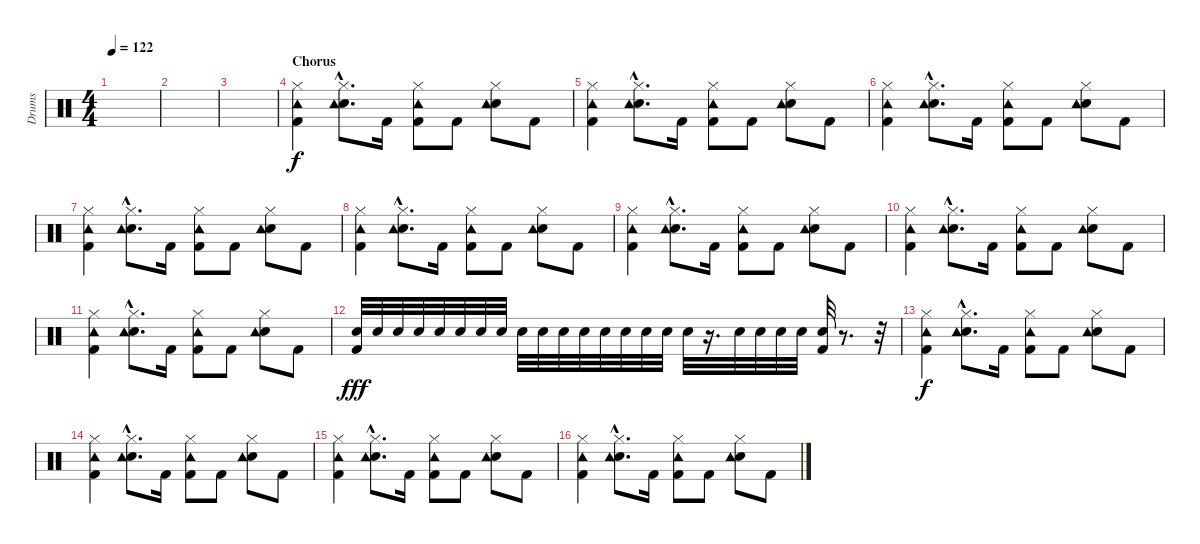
\track ("Drums" "Drums") {instrument percussion}
\staff {score}
\articulation defaults
\ts (4 4)
\tempo 122
\clef neutral
\ks c
|
|
|
\section ("" "Chorus")
("Hi-Hat (closed)" "Kick (hit) 2" "Tambourine (hit)").4 ("Hi-Hat (closed)"{hac} "Electric Snare (hit)"{hac} "Tambourine (hit)"{hac}).8{d} "Kick (hit) 2".16 ("Hi-Hat (closed)" "Kick (hit) 2" "Tambourine (hit)").8 "Kick (hit) 2".8 ("Hi-Hat (closed)" "Electric Snare (hit)" "Tambourine (hit)").8 "Kick (hit) 2".8 |
("Hi-Hat (closed)" "Kick (hit) 2" "Tambourine (hit)").4 ("Hi-Hat (closed)"{hac} "Electric Snare (hit)"{hac} "Tambourine (hit)"{hac}).8{d} "Kick (hit) 2".16 ("Hi-Hat (closed)" "Kick (hit) 2" "Tambourine (hit)").8 "Kick (hit) 2".8 ("Hi-Hat (closed)" "Electric Snare (hit)" "Tambourine (hit)").8 "Kick (hit) 2".8 |
("Hi-Hat (closed)" "Kick (hit) 2" "Tambourine (hit)").4 ("Hi-Hat (closed)"{hac} "Electric Snare (hit)"{hac} "Tambourine (hit)"{hac}).8{d} "Kick (hit) 2".16 ("Hi-Hat (closed)" "Kick (hit) 2" "Tambourine (hit)").8 "Kick (hit) 2".8 ("Hi-Hat (closed)" "Electric Snare (hit)" "Tambourine (hit)").8 "Kick (hit) 2".8 |
("Hi-Hat (closed)" "Kick (hit) 2" "Tambourine (hit)").4 ("Hi-Hat (closed)"{hac} "Electric Snare (hit)"{hac} "Tambourine (hit)"{hac}).8{d} "Kick (hit) 2".16 ("Hi-Hat (closed)" "Kick (hit) 2" "Tambourine (hit)").8 "Kick (hit) 2".8 ("Hi-Hat (closed)" "Electric Snare (hit)" "Tambourine (hit)").8 "Kick (hit) 2".8 |
("Hi-Hat (closed)" "Kick (hit) 2" "Tambourine (hit)").4 ("Hi-Hat (closed)"{hac} "Electric Snare (hit)"{hac} "Tambourine (hit)"{hac}).8{d} "Kick (hit) 2".16 ("Hi-Hat (closed)" "Kick (hit) 2" "Tambourine (hit)").8 "Kick (hit) 2".8 ("Hi-Hat (closed)" "Electric Snare (hit)" "Tambourine (hit)").8 "Kick (hit) 2".8 |
("Hi-Hat (closed)" "Kick (hit) 2" "Tambourine (hit)").4 ("Hi-Hat (closed)"{hac} "Electric Snare (hit)"{hac} "Tambourine (hit)"{hac}).8{d} "Kick (hit) 2".16 ("Hi-Hat (closed)" "Kick (hit) 2" "Tambourine (hit)").8 "Kick (hit) 2".8 ("Hi-Hat (closed)" "Electric Snare (hit)" "Tambourine (hit)").8 "Kick (hit) 2".8 |
("Hi-Hat (closed)" "Kick (hit) 2" "Tambourine (hit)").4 ("Hi-Hat (closed)"{hac} "Electric Snare (hit)"{hac} "Tambourine (hit)"{hac}).8{d} "Kick (hit) 2".16 ("Hi-Hat (closed)" "Kick (hit) 2" "Tambourine (hit)").8 "Kick (hit) 2".8 ("Hi-Hat (closed)" "Electric Snare (hit)" "Tambourine (hit)").8 "Kick (hit) 2".8 |
("Hi-Hat (closed)" "Kick (hit) 2" "Tambourine (hit)").4 ("Hi-Hat (closed)"{hac} "Electric Snare (hit)"{hac} "Tambourine (hit)"{hac}).8{d} "Kick (hit) 2".16 ("Hi-Hat (closed)" "Kick (hit) 2" "Tambourine (hit)").8 "Kick (hit) 2".8 ("Hi-Hat (closed)" "Electric Snare (hit)" "Tambourine (hit)").8 "Kick (hit) 2".8 |
("Kick (hit) 2" "Snare (hit) 2").32{dy fff} "Snare (hit) 2".32 "Snare (hit) 2".32 "Snare (hit) 2".32 "Snare (hit) 2".32 "Snare (hit) 2".32 "Snare (hit) 2".32 "Snare (hit) 2".32 "Snare (hit) 2".32 "Snare (hit) 2".32 "Snare (hit) 2".32 "Snare (hit) 2".32 "Snare (hit) 2".32 "Snare (hit) 2".32 "Snare (hit) 2".32 "Snare (hit) 2".32 "Snare (hit) 2".32 r.16{d} "Snare (hit) 2".32 "Snare (hit) 2".32 "Snare (hit) 2".32 "Snare (hit) 2".32 ("Snare (hit) 2" "Kick (hit) 2").32 r.8{d} r.32 |
("Hi-Hat (closed)" "Kick (hit) 2" "Tambourine (hit)").4{dy f} ("Hi-Hat (closed)"{hac} "Electric Snare (hit)"{hac} "Tambourine (hit)"{hac}).8{d} "Kick (hit) 2".16 ("Hi-Hat (closed)" "Kick (hit) 2" "Tambourine (hit)").8 "Kick (hit) 2".8 ("Hi-Hat (closed)" "Electric Snare (hit)" "Tambourine (hit)").8 "Kick (hit) 2".8 |
("Hi-Hat (closed)" "Kick (hit) 2" "Tambourine (hit)").4 ("Hi-Hat (closed)"{hac} "Electric Snare (hit)"{hac} "Tambourine (hit)"{hac}).8{d} "Kick (hit) 2".16 ("Hi-Hat (closed)" "Kick (hit) 2" "Tambourine (hit)").8 "Kick (hit) 2".8 ("Hi-Hat (closed)" "Electric Snare (hit)" "Tambourine (hit)").8 "Kick (hit) 2".8 |
("Hi-Hat (closed)" "Kick (hit) 2" "Tambourine (hit)").4 ("Hi-Hat (closed)"{hac} "Electric Snare (hit)"{hac} "Tambourine (hit)"{hac}).8{d} "Kick (hit) 2".16 ("Hi-Hat (closed)" "Kick (hit) 2" "Tambourine (hit)").8 "Kick (hit) 2".8 ("Hi-Hat (closed)" "Electric Snare (hit)" "Tambourine (hit)").8 "Kick (hit) 2".8 |
("Hi-Hat (closed)" "Kick (hit) 2" "Tambourine (hit)").4 ("Hi-Hat (closed)"{hac} "Electric Snare (hit)"{hac} "Tambourine (hit)"{hac}).8{d} "Kick (hit) 2".16 ("Hi-Hat (closed)" "Kick (hit) 2" "Tambourine (hit)").8 "Kick (hit) 2".8 ("Hi-Hat (closed)" "Electric Snare (hit)" "Tambourine (hit)").8 "Kick (hit) 2".8
